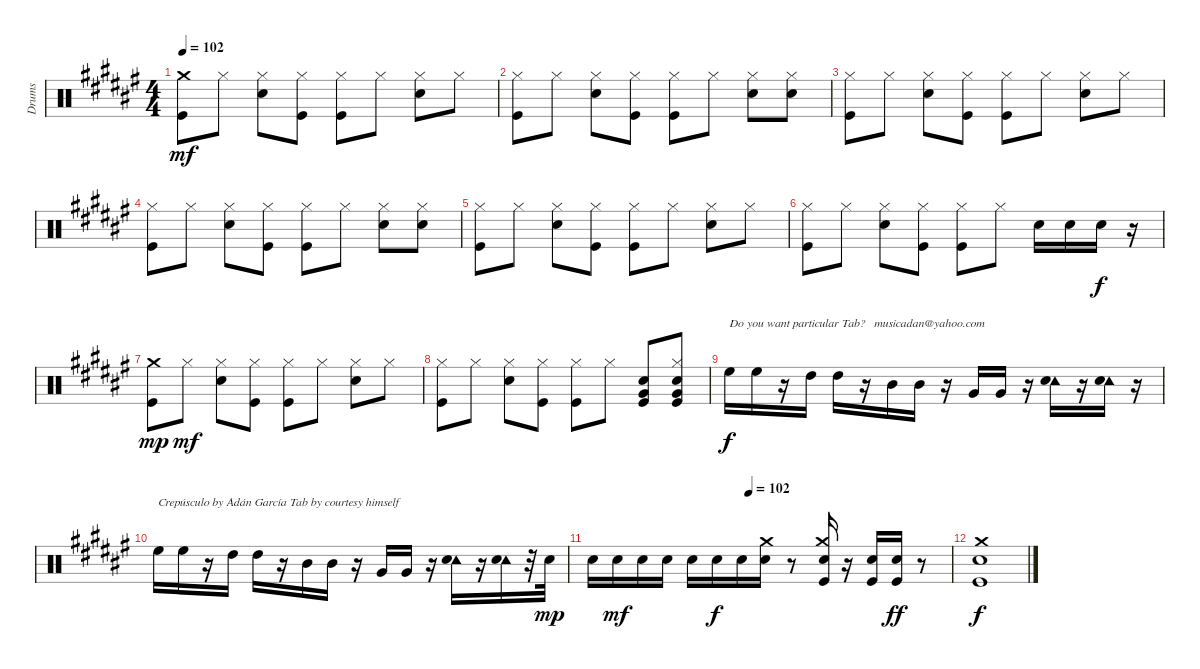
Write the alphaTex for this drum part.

\track ("Drums" "Drums") {instrument percussion}
\staff {score}
\articulation defaults
\ts (4 4)
\tempo 102
\clef neutral
\ks f#
("Kick (hit)" "Crash medium (hit)").8{dy mf} "Hi-Hat (closed)".8 ("Electric Snare (hit)" "Hi-Hat (closed)").8 ("Kick (hit)" "Hi-Hat (closed)").8 ("Kick (hit)" "Hi-Hat (closed)").8 "Hi-Hat (closed)".8 ("Electric Snare (hit)" "Hi-Hat (closed)").8 "Hi-Hat (closed)".8 |
("Kick (hit)" "Hi-Hat (closed)").8 "Hi-Hat (closed)".8 ("Electric Snare (hit)" "Hi-Hat (closed)").8 ("Kick (hit)" "Hi-Hat (closed)").8 ("Kick (hit)" "Hi-Hat (closed)").8 "Hi-Hat (closed)".8 ("Electric Snare (hit)" "Hi-Hat (closed)").8 ("Electric Snare (hit)" "Hi-Hat (closed)").8 |
("Kick (hit)" "Hi-Hat (closed)").8 "Hi-Hat (closed)".8 ("Electric Snare (hit)" "Hi-Hat (closed)").8 ("Kick (hit)" "Hi-Hat (closed)").8 ("Kick (hit)" "Hi-Hat (closed)").8 "Hi-Hat (closed)".8 ("Electric Snare (hit)" "Hi-Hat (closed)").8 "Hi-Hat (closed)".8 |
("Kick (hit)" "Hi-Hat (closed)").8 "Hi-Hat (closed)".8 ("Electric Snare (hit)" "Hi-Hat (closed)").8 ("Kick (hit)" "Hi-Hat (closed)").8 ("Kick (hit)" "Hi-Hat (closed)").8 "Hi-Hat (closed)".8 ("Electric Snare (hit)" "Hi-Hat (closed)").8 ("Electric Snare (hit)" "Hi-Hat (closed)").8 |
("Kick (hit)" "Hi-Hat (closed)").8 "Hi-Hat (closed)".8 ("Electric Snare (hit)" "Hi-Hat (closed)").8 ("Kick (hit)" "Hi-Hat (closed)").8 ("Kick (hit)" "Hi-Hat (closed)").8 "Hi-Hat (closed)".8 ("Electric Snare (hit)" "Hi-Hat (closed)").8 "Hi-Hat (closed)".8 |
("Kick (hit)" "Hi-Hat (closed)").8 "Hi-Hat (closed)".8 ("Electric Snare (hit)" "Hi-Hat (closed)").8 ("Kick (hit)" "Hi-Hat (closed)").8 ("Kick (hit)" "Hi-Hat (closed)").8 "Hi-Hat (closed)".8 "Electric Snare (hit)".16 "Electric Snare (hit)".16 "Electric Snare (hit)".16{dy f} r.16 |
("Kick (hit)" "Crash medium (hit)").8{dy mp} "Hi-Hat (closed)".8{dy mf} ("Electric Snare (hit)" "Hi-Hat (closed)").8 ("Kick (hit)" "Hi-Hat (closed)").8 ("Kick (hit)" "Hi-Hat (closed)").8 "Hi-Hat (closed)".8 ("Electric Snare (hit)" "Hi-Hat (closed)").8 "Hi-Hat (closed)".8 |
("Kick (hit)" "Hi-Hat (closed)").8 "Hi-Hat (closed)".8 ("Electric Snare (hit)" "Hi-Hat (closed)").8 ("Kick (hit)" "Hi-Hat (closed)").8 ("Kick (hit)" "Hi-Hat (closed)").8 "Hi-Hat (closed)".8 ("Electric Snare (hit)" "Very Low Tom (hit)" "Kick (hit)").8 ("Hi-Hat (closed)" "Kick (hit)" "Very Low Tom (hit)" "Electric Snare (hit)").8 |
"High Floor Tom (hit)".16{txt "Do you want particular Tab?   musicadan@yahoo.com" dy f} "High Floor Tom (hit)".16 r.16 "High Tom (hit)".16 "High Tom (hit)".16 r.16 "Mid Tom (hit)".16 "Mid Tom (hit)".16 r.16 "Very Low Tom (hit)".16 "Very Low Tom (hit)".16 r.16 ("Tambourine (hit)" "Electric Snare (hit)").16 r.16 ("Tambourine (hit)" "Electric Snare (hit)").16 r.16 |
"High Floor Tom (hit)".16{txt "Crepúsculo by Adán García Tab by courtesy himself"} "High Floor Tom (hit)".16 r.16 "High Tom (hit)".16 "High Tom (hit)".16 r.16 "Mid Tom (hit)".16 "Mid Tom (hit)".16 r.16 "Very Low Tom (hit)".16 "Very Low Tom (hit)".16 r.16 ("Tambourine (hit)" "Electric Snare (hit)").16 r.16 ("Tambourine (hit)" "Electric Snare (hit)").16 r.32 "Electric Snare (hit)".32{dy mp} |
\tempo (102 0.4375)
"Electric Snare (hit)".16 "Electric Snare (hit)".16{dy mf} "Electric Snare (hit)".16 "Electric Snare (hit)".16 "Electric Snare (hit)".16 "Electric Snare (hit)".16{dy f} "Electric Snare (hit)".16 ("Electric Snare (hit)" "Crash medium (hit)").16 r.8 ("Kick (hit)" "Electric Snare (hit)" "Crash medium (hit)").16 r.16 ("Kick (hit)" "Electric Snare (hit)").16 ("Kick (hit)" "Electric Snare (hit)").16{dy ff} r.8 |
("Electric Snare (hit)" "Kick (hit)" "Crash medium (hit)").1{dy f}
